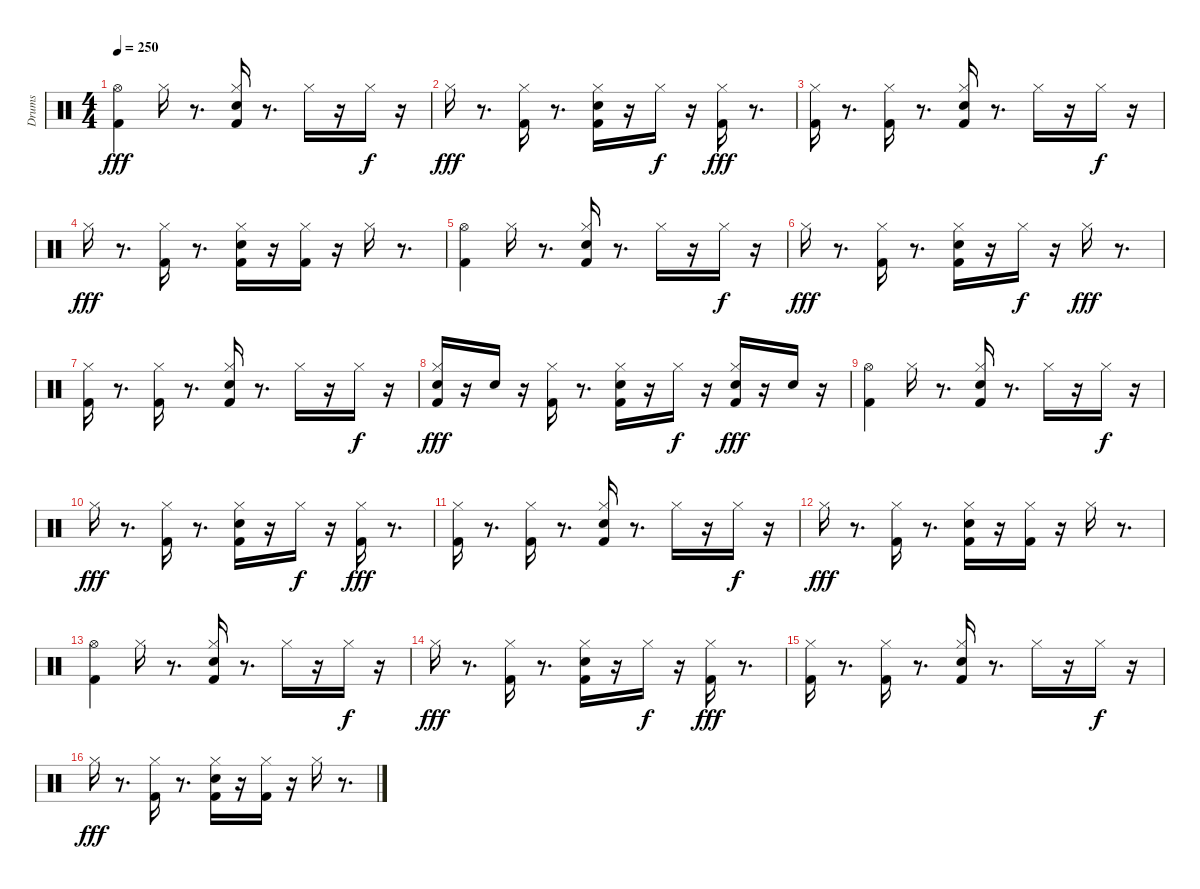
\track ("Drums" "Drums") {instrument percussion}
\staff {score}
\articulation defaults
\ts (4 4)
\tempo 250
\clef neutral
\ks c
("Hi-Hat (open)" "Kick (hit) 2").4{dy fff} "Hi-Hat (closed)".16 r.8{d} ("Kick (hit) 2" "Electric Snare (hit)" "Hi-Hat (closed)").16 r.8{d} "Hi-Hat (closed)".16 r.16 "Hi-Hat (closed)".16{dy f} r.16 |
"Hi-Hat (closed)".16{dy fff} r.8{d} ("Kick (hit) 2" "Hi-Hat (closed)").16 r.8{d} ("Kick (hit) 2" "Electric Snare (hit)" "Hi-Hat (closed)").16 r.16 "Hi-Hat (closed)".16{dy f} r.16 ("Kick (hit) 2" "Hi-Hat (closed)").16{dy fff} r.8{d} |
("Kick (hit) 2" "Hi-Hat (closed)").16 r.8{d} ("Hi-Hat (closed)" "Kick (hit) 2").16 r.8{d} ("Kick (hit) 2" "Electric Snare (hit)" "Hi-Hat (closed)").16 r.8{d} "Hi-Hat (closed)".16 r.16 "Hi-Hat (closed)".16{dy f} r.16 |
"Hi-Hat (closed)".16{dy fff} r.8{d} ("Kick (hit) 2" "Hi-Hat (closed)").16 r.8{d} ("Kick (hit) 2" "Electric Snare (hit)" "Hi-Hat (closed)").16 r.16 ("Hi-Hat (closed)" "Kick (hit) 2").16 r.16 "Hi-Hat (closed)".16 r.8{d} |
("Kick (hit) 2" "Hi-Hat (open)").4 "Hi-Hat (closed)".16 r.8{d} ("Kick (hit) 2" "Electric Snare (hit)" "Hi-Hat (closed)").16 r.8{d} "Hi-Hat (closed)".16 r.16 "Hi-Hat (closed)".16{dy f} r.16 |
"Hi-Hat (closed)".16{dy fff} r.8{d} ("Kick (hit) 2" "Hi-Hat (closed)").16 r.8{d} ("Kick (hit) 2" "Electric Snare (hit)" "Hi-Hat (closed)").16 r.16 "Hi-Hat (closed)".16{dy f} r.16 "Hi-Hat (closed)".16{dy fff} r.8{d} |
("Kick (hit) 2" "Hi-Hat (closed)").16 r.8{d} ("Hi-Hat (closed)" "Kick (hit) 2").16 r.8{d} ("Kick (hit) 2" "Electric Snare (hit)" "Hi-Hat (closed)").16 r.8{d} "Hi-Hat (closed)".16 r.16 "Hi-Hat (closed)".16{dy f} r.16 |
("Hi-Hat (closed)" "Electric Snare (hit)" "Kick (hit) 2").16{dy fff} r.16 "Electric Snare (hit)".16 r.16 ("Hi-Hat (closed)" "Kick (hit) 2").16 r.8{d} ("Hi-Hat (closed)" "Electric Snare (hit)" "Kick (hit) 2").16 r.16 "Hi-Hat (closed)".16{dy f} r.16 ("Hi-Hat (closed)" "Electric Snare (hit)" "Kick (hit) 2").16{dy fff} r.16 "Electric Snare (hit)".16 r.16 |
("Kick (hit) 2" "Hi-Hat (open)").4 "Hi-Hat (closed)".16 r.8{d} ("Kick (hit) 2" "Electric Snare (hit)" "Hi-Hat (closed)").16 r.8{d} "Hi-Hat (closed)".16 r.16 "Hi-Hat (closed)".16{dy f} r.16 |
"Hi-Hat (closed)".16{dy fff} r.8{d} ("Kick (hit) 2" "Hi-Hat (closed)").16 r.8{d} ("Kick (hit) 2" "Electric Snare (hit)" "Hi-Hat (closed)").16 r.16 "Hi-Hat (closed)".16{dy f} r.16 ("Kick (hit) 2" "Hi-Hat (closed)").16{dy fff} r.8{d} |
("Kick (hit) 2" "Hi-Hat (closed)").16 r.8{d} ("Hi-Hat (closed)" "Kick (hit) 2").16 r.8{d} ("Kick (hit) 2" "Electric Snare (hit)" "Hi-Hat (closed)").16 r.8{d} "Hi-Hat (closed)".16 r.16 "Hi-Hat (closed)".16{dy f} r.16 |
"Hi-Hat (closed)".16{dy fff} r.8{d} ("Kick (hit) 2" "Hi-Hat (closed)").16 r.8{d} ("Kick (hit) 2" "Electric Snare (hit)" "Hi-Hat (closed)").16 r.16 ("Hi-Hat (closed)" "Kick (hit) 2").16 r.16 "Hi-Hat (closed)".16 r.8{d} |
("Hi-Hat (open)" "Kick (hit) 2").4 "Hi-Hat (closed)".16 r.8{d} ("Kick (hit) 2" "Electric Snare (hit)" "Hi-Hat (closed)").16 r.8{d} "Hi-Hat (closed)".16 r.16 "Hi-Hat (closed)".16{dy f} r.16 |
"Hi-Hat (closed)".16{dy fff} r.8{d} ("Kick (hit) 2" "Hi-Hat (closed)").16 r.8{d} ("Kick (hit) 2" "Electric Snare (hit)" "Hi-Hat (closed)").16 r.16 "Hi-Hat (closed)".16{dy f} r.16 ("Kick (hit) 2" "Hi-Hat (closed)").16{dy fff} r.8{d} |
("Kick (hit) 2" "Hi-Hat (closed)").16 r.8{d} ("Hi-Hat (closed)" "Kick (hit) 2").16 r.8{d} ("Kick (hit) 2" "Electric Snare (hit)" "Hi-Hat (closed)").16 r.8{d} "Hi-Hat (closed)".16 r.16 "Hi-Hat (closed)".16{dy f} r.16 |
"Hi-Hat (closed)".16{dy fff} r.8{d} ("Kick (hit) 2" "Hi-Hat (closed)").16 r.8{d} ("Kick (hit) 2" "Electric Snare (hit)" "Hi-Hat (closed)").16 r.16 ("Hi-Hat (closed)" "Kick (hit) 2").16 r.16 "Hi-Hat (closed)".16 r.8{d}
